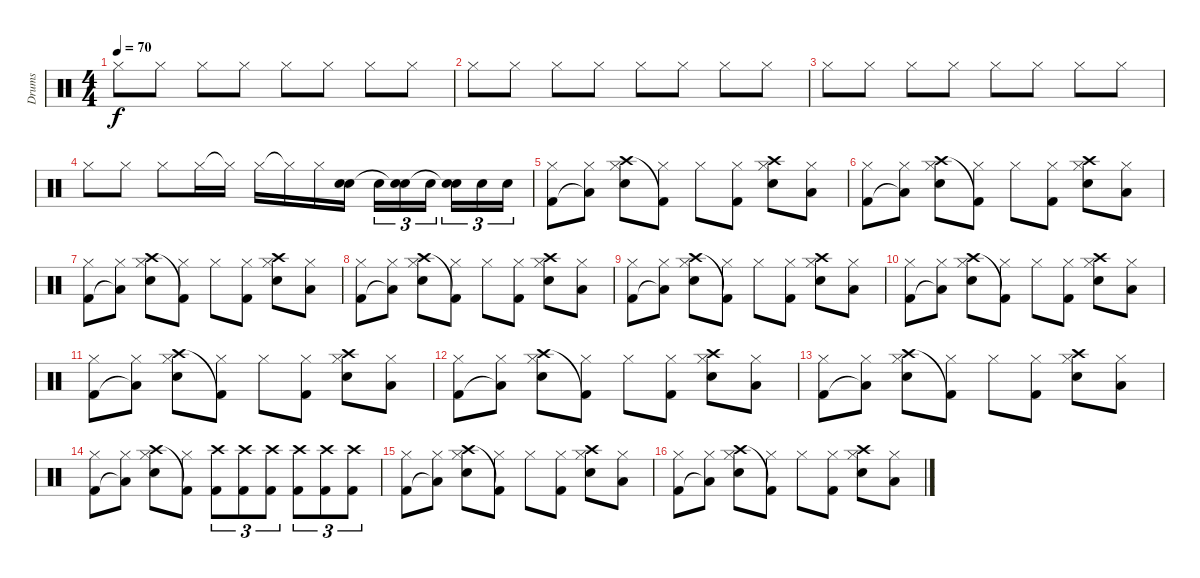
\track ("Drums" "Drums") {instrument percussion}
\staff {score}
\articulation defaults
\ts (4 4)
\tempo 70
\clef neutral
\ks c "Hi-Hat (closed)".8{dy f} "Hi-Hat (closed)".8 "Hi-Hat (closed)".8 "Hi-Hat (closed)".8 "Hi-Hat (closed)".8 "Hi-Hat (closed)".8 "Hi-Hat (closed)".8 "Hi-Hat (closed)".8
|
"Hi-Hat (closed)".8 "Hi-Hat (closed)".8 "Hi-Hat (closed)".8 "Hi-Hat (closed)".8 "Hi-Hat (closed)".8 "Hi-Hat (closed)".8 "Hi-Hat (closed)".8 "Hi-Hat (closed)".8 |
"Hi-Hat (closed)".8 "Hi-Hat (closed)".8 "Hi-Hat (closed)".8 "Hi-Hat (closed)".8 "Hi-Hat (closed)".8 "Hi-Hat (closed)".8 "Hi-Hat (closed)".8 "Hi-Hat (closed)".8 |
"Hi-Hat (closed)".8 "Hi-Hat (closed)".8 "Hi-Hat (closed)".8 "Hi-Hat (closed)".16 "Hi-Hat (closed)"{t}.16 "Hi-Hat (closed)".16 "Hi-Hat (closed)"{t}.16 "Hi-Hat (closed)".16 ("Electric Snare (hit)" "Snare (hit)").16 "Electric Snare (hit)".16{tu (3 2)} ("Electric Snare (hit)" "Snare (hit)"{t}).16{tu (3 2)} "Electric Snare (hit)".16{tu (3 2) beam splitsecondary} ("Electric Snare (hit)" "Snare (hit)"{t}).16{tu (3 2)} "Electric Snare (hit)".16{tu (3 2)} "Electric Snare (hit)".16{tu (3 2)} |
("Kick (hit) 2" "Hi-Hat (closed)").8 ("Low Floor Tom (hit)"{t} "Hi-Hat (closed)").8 ("Crash high (hit)" "Electric Snare (hit)" "Hi-Hat (closed)").8 ("Kick (hit) 2"{t} "Hi-Hat (closed)").8 "Hi-Hat (closed)".8 ("Kick (hit) 2" "Hi-Hat (closed)").8 ("Crash high (hit)" "Electric Snare (hit)" "Hi-Hat (closed)").8 ("Low Floor Tom (hit)" "Hi-Hat (closed)").8 |
("Kick (hit) 2" "Hi-Hat (closed)").8 ("Low Floor Tom (hit)"{t} "Hi-Hat (closed)").8 ("Crash high (hit)" "Electric Snare (hit)" "Hi-Hat (closed)").8 ("Kick (hit) 2"{t} "Hi-Hat (closed)").8 "Hi-Hat (closed)".8 ("Kick (hit) 2" "Hi-Hat (closed)").8 ("Crash high (hit)" "Electric Snare (hit)" "Hi-Hat (closed)").8 ("Low Floor Tom (hit)" "Hi-Hat (closed)").8 |
("Kick (hit) 2" "Hi-Hat (closed)").8 ("Low Floor Tom (hit)"{t} "Hi-Hat (closed)").8 ("Crash high (hit)" "Electric Snare (hit)" "Hi-Hat (closed)").8 ("Kick (hit) 2"{t} "Hi-Hat (closed)").8 "Hi-Hat (closed)".8 ("Kick (hit) 2" "Hi-Hat (closed)").8 ("Crash high (hit)" "Electric Snare (hit)" "Hi-Hat (closed)").8 ("Low Floor Tom (hit)" "Hi-Hat (closed)").8 |
("Kick (hit) 2" "Hi-Hat (closed)").8 ("Low Floor Tom (hit)"{t} "Hi-Hat (closed)").8 ("Crash high (hit)" "Electric Snare (hit)" "Hi-Hat (closed)").8 ("Kick (hit) 2"{t} "Hi-Hat (closed)").8 "Hi-Hat (closed)".8 ("Kick (hit) 2" "Hi-Hat (closed)").8 ("Crash high (hit)" "Electric Snare (hit)" "Hi-Hat (closed)").8 ("Low Floor Tom (hit)" "Hi-Hat (closed)").8 |
("Kick (hit) 2" "Hi-Hat (closed)").8 ("Low Floor Tom (hit)"{t} "Hi-Hat (closed)").8 ("Crash high (hit)" "Electric Snare (hit)" "Hi-Hat (closed)").8 ("Kick (hit) 2"{t} "Hi-Hat (closed)").8 "Hi-Hat (closed)".8 ("Kick (hit) 2" "Hi-Hat (closed)").8 ("Crash high (hit)" "Electric Snare (hit)" "Hi-Hat (closed)").8 ("Low Floor Tom (hit)" "Hi-Hat (closed)").8 |
("Kick (hit) 2" "Hi-Hat (closed)").8 ("Low Floor Tom (hit)"{t} "Hi-Hat (closed)").8 ("Crash high (hit)" "Electric Snare (hit)" "Hi-Hat (closed)").8 ("Kick (hit) 2"{t} "Hi-Hat (closed)").8 "Hi-Hat (closed)".8 ("Kick (hit) 2" "Hi-Hat (closed)").8 ("Crash high (hit)" "Electric Snare (hit)" "Hi-Hat (closed)").8 ("Low Floor Tom (hit)" "Hi-Hat (closed)").8 |
("Kick (hit) 2" "Hi-Hat (closed)").8 ("Low Floor Tom (hit)"{t} "Hi-Hat (closed)").8 ("Crash high (hit)" "Electric Snare (hit)" "Hi-Hat (closed)").8 ("Kick (hit) 2"{t} "Hi-Hat (closed)").8 "Hi-Hat (closed)".8 ("Kick (hit) 2" "Hi-Hat (closed)").8 ("Crash high (hit)" "Electric Snare (hit)" "Hi-Hat (closed)").8 ("Low Floor Tom (hit)" "Hi-Hat (closed)").8 |
("Kick (hit) 2" "Hi-Hat (closed)").8 ("Low Floor Tom (hit)"{t} "Hi-Hat (closed)").8 ("Crash high (hit)" "Electric Snare (hit)" "Hi-Hat (closed)").8 ("Kick (hit) 2"{t} "Hi-Hat (closed)").8 "Hi-Hat (closed)".8 ("Kick (hit) 2" "Hi-Hat (closed)").8 ("Crash high (hit)" "Electric Snare (hit)" "Hi-Hat (closed)").8 ("Low Floor Tom (hit)" "Hi-Hat (closed)").8 |
("Kick (hit) 2" "Hi-Hat (closed)").8 ("Low Floor Tom (hit)"{t} "Hi-Hat (closed)").8 ("Crash high (hit)" "Electric Snare (hit)" "Hi-Hat (closed)").8 ("Kick (hit) 2"{t} "Hi-Hat (closed)").8 "Hi-Hat (closed)".8 ("Kick (hit) 2" "Hi-Hat (closed)").8 ("Crash high (hit)" "Electric Snare (hit)" "Hi-Hat (closed)").8 ("Low Floor Tom (hit)" "Hi-Hat (closed)").8 |
("Kick (hit) 2" "Hi-Hat (closed)").8 ("Low Floor Tom (hit)"{t} "Hi-Hat (closed)").8 ("Crash high (hit)" "Electric Snare (hit)" "Hi-Hat (closed)").8 ("Kick (hit) 2"{t} "Hi-Hat (closed)").8 ("Crash high (hit)" "Kick (hit) 2").8{tu (3 2)} ("Crash high (hit)" "Kick (hit) 2").8{tu (3 2)} ("Crash high (hit)" "Kick (hit) 2").8{tu (3 2)} ("Crash high (hit)" "Kick (hit) 2").8{tu (3 2)} ("Crash high (hit)" "Kick (hit) 2").8{tu (3 2)} ("Crash high (hit)" "Kick (hit) 2").8{tu (3 2)} |
("Kick (hit) 2" "Hi-Hat (closed)").8 ("Low Floor Tom (hit)"{t} "Hi-Hat (closed)").8 ("Crash high (hit)" "Electric Snare (hit)" "Hi-Hat (closed)").8 ("Kick (hit) 2"{t} "Hi-Hat (closed)").8 "Hi-Hat (closed)".8 ("Kick (hit) 2" "Hi-Hat (closed)").8 ("Crash high (hit)" "Electric Snare (hit)" "Hi-Hat (closed)").8 ("Low Floor Tom (hit)" "Hi-Hat (closed)").8 |
("Kick (hit) 2" "Hi-Hat (closed)").8 ("Low Floor Tom (hit)"{t} "Hi-Hat (closed)").8 ("Crash high (hit)" "Electric Snare (hit)" "Hi-Hat (closed)").8 ("Kick (hit) 2"{t} "Hi-Hat (closed)").8 "Hi-Hat (closed)".8 ("Kick (hit) 2" "Hi-Hat (closed)").8 ("Crash high (hit)" "Electric Snare (hit)" "Hi-Hat (closed)").8 ("Low Floor Tom (hit)" "Hi-Hat (closed)").8
